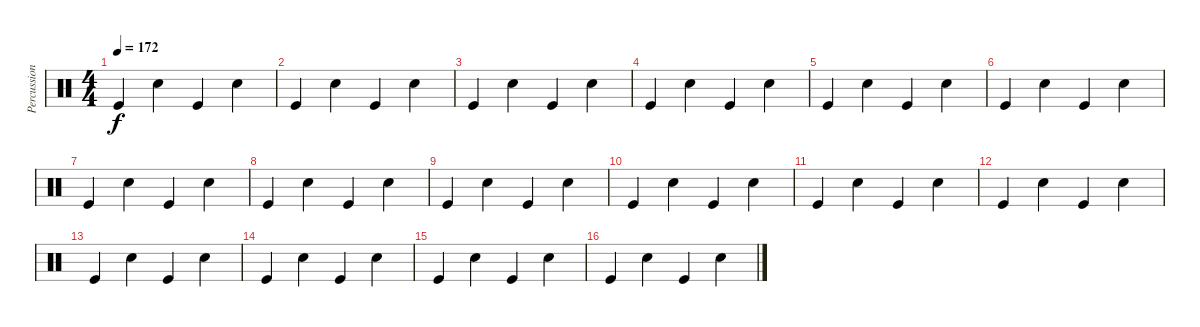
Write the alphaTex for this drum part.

\track ("Percussion" "Percussion") {instrument percussion}
\staff {score}
\articulation defaults
\ts (4 4)
\tempo 172
\clef neutral
\ks c "Kick (hit)".4{dy f} "Snare (hit) 2".4 "Kick (hit)".4 "Snare (hit) 2".4
|
"Kick (hit)".4 "Snare (hit) 2".4 "Kick (hit)".4 "Snare (hit) 2".4 |
"Kick (hit)".4 "Snare (hit) 2".4 "Kick (hit)".4 "Snare (hit) 2".4 |
"Kick (hit)".4 "Snare (hit) 2".4 "Kick (hit)".4 "Snare (hit) 2".4 |
"Kick (hit)".4 "Snare (hit) 2".4 "Kick (hit)".4 "Snare (hit) 2".4 |
"Kick (hit)".4 "Snare (hit) 2".4 "Kick (hit)".4 "Snare (hit) 2".4 |
"Kick (hit)".4 "Snare (hit) 2".4 "Kick (hit)".4 "Snare (hit) 2".4 |
"Kick (hit)".4 "Snare (hit) 2".4 "Kick (hit)".4 "Snare (hit) 2".4 |
"Kick (hit)".4 "Snare (hit) 2".4 "Kick (hit)".4 "Snare (hit) 2".4 |
"Kick (hit)".4 "Snare (hit) 2".4 "Kick (hit)".4 "Snare (hit) 2".4 |
"Kick (hit)".4 "Snare (hit) 2".4 "Kick (hit)".4 "Snare (hit) 2".4 |
"Kick (hit)".4 "Snare (hit) 2".4 "Kick (hit)".4 "Snare (hit) 2".4 |
"Kick (hit)".4 "Snare (hit) 2".4 "Kick (hit)".4 "Snare (hit) 2".4 |
"Kick (hit)".4 "Snare (hit) 2".4 "Kick (hit)".4 "Snare (hit) 2".4 |
"Kick (hit)".4 "Snare (hit) 2".4 "Kick (hit)".4 "Snare (hit) 2".4 |
"Kick (hit)".4 "Snare (hit) 2".4 "Kick (hit)".4 "Snare (hit) 2".4
